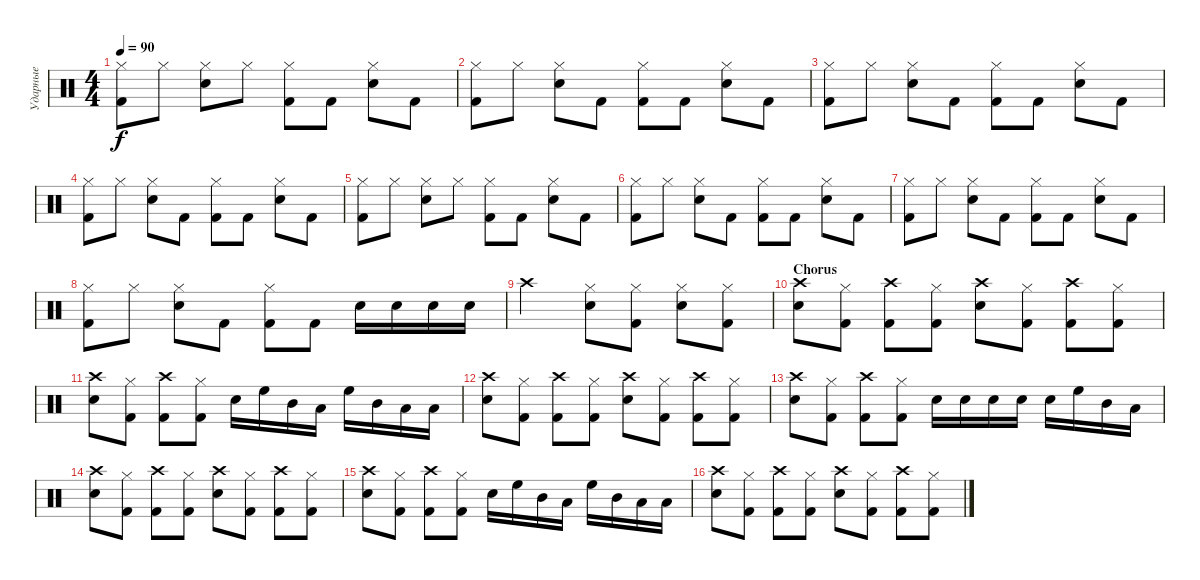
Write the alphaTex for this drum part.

\track ("Ударные" "Ударные") {instrument percussion}
\staff {score}
\articulation defaults
\ts (4 4)
\tempo 90
\clef neutral
\ks c
("Hi-Hat (closed)" "Kick (hit) 2").8{dy f} "Hi-Hat (closed)".8 ("Snare (hit) 2" "Hi-Hat (closed)").8 "Hi-Hat (closed)".8 ("Hi-Hat (closed)" "Kick (hit) 2").8 "Kick (hit) 2".8 ("Hi-Hat (closed)" "Snare (hit) 2").8 "Kick (hit) 2".8 |
("Hi-Hat (closed)" "Kick (hit) 2").8 "Hi-Hat (closed)".8 ("Hi-Hat (closed)" "Snare (hit) 2").8 "Kick (hit) 2".8 ("Hi-Hat (closed)" "Kick (hit) 2").8 "Kick (hit) 2".8 ("Hi-Hat (closed)" "Snare (hit) 2").8 "Kick (hit) 2".8 |
("Hi-Hat (closed)" "Kick (hit) 2").8 "Hi-Hat (closed)".8 ("Hi-Hat (closed)" "Snare (hit) 2").8 "Kick (hit) 2".8 ("Hi-Hat (closed)" "Kick (hit) 2").8 "Kick (hit) 2".8 ("Hi-Hat (closed)" "Snare (hit) 2").8 "Kick (hit) 2".8 |
("Hi-Hat (closed)" "Kick (hit) 2").8 "Hi-Hat (closed)".8 ("Hi-Hat (closed)" "Snare (hit) 2").8 "Kick (hit) 2".8 ("Hi-Hat (closed)" "Kick (hit) 2").8 "Kick (hit) 2".8 ("Hi-Hat (closed)" "Snare (hit) 2").8 "Kick (hit) 2".8 |
("Hi-Hat (closed)" "Kick (hit) 2").8 "Hi-Hat (closed)".8 ("Snare (hit) 2" "Hi-Hat (closed)").8 "Hi-Hat (closed)".8 ("Hi-Hat (closed)" "Kick (hit) 2").8 "Kick (hit) 2".8 ("Hi-Hat (closed)" "Snare (hit) 2").8 "Kick (hit) 2".8 |
("Hi-Hat (closed)" "Kick (hit) 2").8 "Hi-Hat (closed)".8 ("Hi-Hat (closed)" "Snare (hit) 2").8 "Kick (hit) 2".8 ("Hi-Hat (closed)" "Kick (hit) 2").8 "Kick (hit) 2".8 ("Hi-Hat (closed)" "Snare (hit) 2").8 "Kick (hit) 2".8 |
("Hi-Hat (closed)" "Kick (hit) 2").8 "Hi-Hat (closed)".8 ("Hi-Hat (closed)" "Snare (hit) 2").8 "Kick (hit) 2".8 ("Hi-Hat (closed)" "Kick (hit) 2").8 "Kick (hit) 2".8 ("Hi-Hat (closed)" "Snare (hit) 2").8 "Kick (hit) 2".8 |
("Hi-Hat (closed)" "Kick (hit) 2").8 "Hi-Hat (closed)".8 ("Hi-Hat (closed)" "Snare (hit) 2").8 "Kick (hit) 2".8 ("Hi-Hat (closed)" "Kick (hit) 2").8 "Kick (hit) 2".8 "Snare (hit) 2".16 "Snare (hit) 2".16 "Snare (hit) 2".16 "Snare (hit) 2".16 |
"Crash high (hit)".2 ("Hi-Hat (closed)" "Snare (hit) 2").8 ("Hi-Hat (closed)" "Kick (hit) 2").8 ("Hi-Hat (closed)" "Snare (hit) 2").8 ("Hi-Hat (closed)" "Kick (hit) 2").8 |
\section ("" "Chorus")
("Snare (hit) 2" "Crash high (hit)").8 ("Hi-Hat (closed)" "Kick (hit) 2").8 ("Kick (hit) 2" "Crash high (hit)").8 ("Hi-Hat (closed)" "Kick (hit) 2").8 ("Snare (hit) 2" "Crash high (hit)").8 ("Hi-Hat (closed)" "Kick (hit) 2").8 ("Crash high (hit)" "Kick (hit) 2").8 ("Hi-Hat (closed)" "Kick (hit) 2").8 |
("Snare (hit) 2" "Crash high (hit)").8 ("Hi-Hat (closed)" "Kick (hit) 2").8 ("Kick (hit) 2" "Crash high (hit)").8 ("Hi-Hat (closed)" "Kick (hit) 2").8 "Snare (hit) 2".16 "High Floor Tom (hit)".16 "Mid Tom (hit)".16 "Low Tom (hit)".16 "High Floor Tom (hit)".16 "Mid Tom (hit)".16 "Low Tom (hit)".16 "Low Floor Tom (hit)".16 |
("Snare (hit) 2" "Crash high (hit)").8 ("Hi-Hat (closed)" "Kick (hit) 2").8 ("Kick (hit) 2" "Crash high (hit)").8 ("Hi-Hat (closed)" "Kick (hit) 2").8 ("Snare (hit) 2" "Crash high (hit)").8 ("Hi-Hat (closed)" "Kick (hit) 2").8 ("Crash high (hit)" "Kick (hit) 2").8 ("Hi-Hat (closed)" "Kick (hit) 2").8 |
("Snare (hit) 2" "Crash high (hit)").8 ("Hi-Hat (closed)" "Kick (hit) 2").8 ("Kick (hit) 2" "Crash high (hit)").8 ("Hi-Hat (closed)" "Kick (hit) 2").8 "Snare (hit) 2".16 "Snare (hit) 2".16 "Snare (hit) 2".16 "Snare (hit) 2".16 "Snare (hit) 2".16 "High Floor Tom (hit)".16 "Mid Tom (hit)".16 "Low Tom (hit)".16 |
("Snare (hit) 2" "Crash high (hit)").8 ("Hi-Hat (closed)" "Kick (hit) 2").8 ("Kick (hit) 2" "Crash high (hit)").8 ("Hi-Hat (closed)" "Kick (hit) 2").8 ("Snare (hit) 2" "Crash high (hit)").8 ("Hi-Hat (closed)" "Kick (hit) 2").8 ("Crash high (hit)" "Kick (hit) 2").8 ("Hi-Hat (closed)" "Kick (hit) 2").8 |
("Snare (hit) 2" "Crash high (hit)").8 ("Hi-Hat (closed)" "Kick (hit) 2").8 ("Kick (hit) 2" "Crash high (hit)").8 ("Hi-Hat (closed)" "Kick (hit) 2").8 "Snare (hit) 2".16 "High Floor Tom (hit)".16 "Mid Tom (hit)".16 "Low Tom (hit)".16 "High Floor Tom (hit)".16 "Mid Tom (hit)".16 "Low Tom (hit)".16 "Low Floor Tom (hit)".16 |
("Snare (hit) 2" "Crash high (hit)").8 ("Hi-Hat (closed)" "Kick (hit) 2").8 ("Kick (hit) 2" "Crash high (hit)").8 ("Hi-Hat (closed)" "Kick (hit) 2").8 ("Snare (hit) 2" "Crash high (hit)").8 ("Hi-Hat (closed)" "Kick (hit) 2").8 ("Crash high (hit)" "Kick (hit) 2").8 ("Hi-Hat (closed)" "Kick (hit) 2").8
